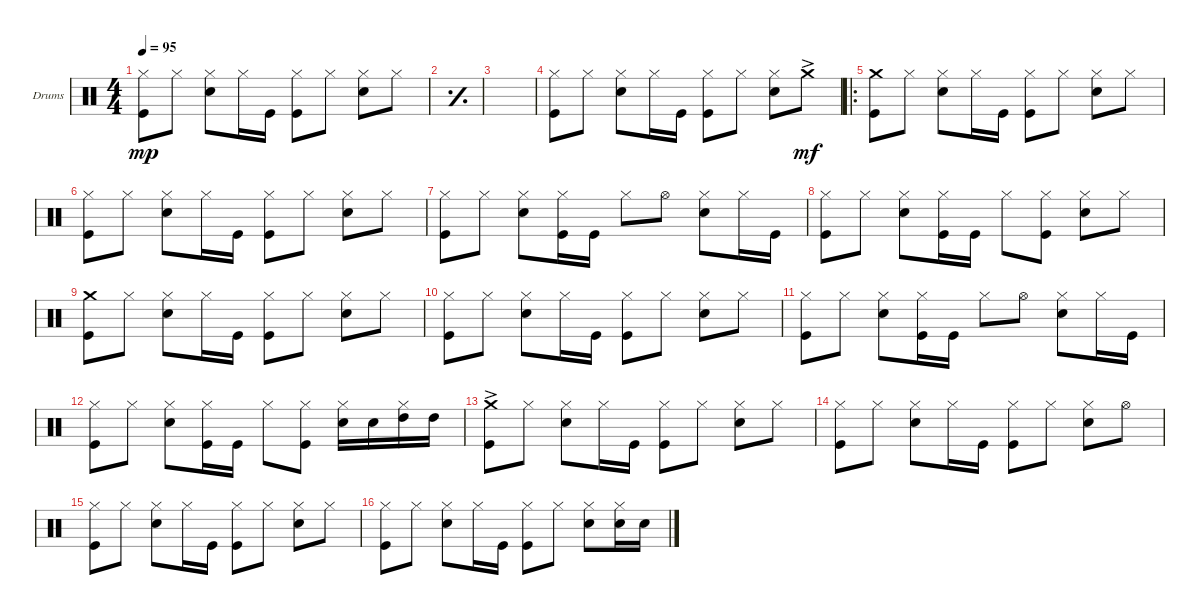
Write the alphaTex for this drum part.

\defaultSystemsLayout 4
\bracketExtendMode groupsimilarinstruments
\firstSystemTrackNameOrientation horizontal
\otherSystemsTrackNameOrientation horizontal
\track ("Batterie " "Drums") {instrument percussion}
\staff {score}
\articulation defaults
\ts (4 4)
\tempo 95
\clef neutral
\ks c
("Kick (hit)" "Hi-Hat (closed)").8{dy mp} "Hi-Hat (closed)".8 ("Hi-Hat (closed)" "Snare (hit) 2").8 "Hi-Hat (closed)".16 "Kick (hit)".16 ("Hi-Hat (closed)" "Kick (hit)").8 "Hi-Hat (closed)".8 ("Hi-Hat (closed)" "Snare (hit) 2").8 "Hi-Hat (closed)".8 |
\simile simple
|
|
\simile none
("Kick (hit)" "Hi-Hat (closed)").8 "Hi-Hat (closed)".8 ("Hi-Hat (closed)" "Snare (hit) 2").8 "Hi-Hat (closed)".16 "Kick (hit)".16 ("Hi-Hat (closed)" "Kick (hit)").8 "Hi-Hat (closed)".8 ("Hi-Hat (closed)" "Snare (hit) 2").8 "Crash medium (hit)"{ac}.8{dy mf} |
\ro
("Kick (hit)" "Crash medium (hit)").8 "Hi-Hat (closed)".8 ("Hi-Hat (closed)" "Snare (hit) 2").8 "Hi-Hat (closed)".16 "Kick (hit)".16 ("Hi-Hat (closed)" "Kick (hit)").8 "Hi-Hat (closed)".8 ("Hi-Hat (closed)" "Snare (hit) 2").8 "Hi-Hat (closed)".8 |
("Kick (hit)" "Hi-Hat (closed)").8 "Hi-Hat (closed)".8 ("Hi-Hat (closed)" "Snare (hit) 2").8 "Hi-Hat (closed)".16 "Kick (hit)".16 ("Hi-Hat (closed)" "Kick (hit)").8 "Hi-Hat (closed)".8 ("Hi-Hat (closed)" "Snare (hit) 2").8 "Hi-Hat (closed)".8 |
("Kick (hit)" "Hi-Hat (closed)").8 "Hi-Hat (closed)".8 ("Hi-Hat (closed)" "Snare (hit) 2").8 ("Hi-Hat (closed)" "Kick (hit)").16 "Kick (hit)".16 "Hi-Hat (closed)".8 "Hi-Hat (open)".8 ("Hi-Hat (closed)" "Snare (hit) 2").8 "Hi-Hat (closed)".16 "Kick (hit)".16 |
("Kick (hit)" "Hi-Hat (closed)").8 "Hi-Hat (closed)".8 ("Hi-Hat (closed)" "Snare (hit) 2").8 ("Hi-Hat (closed)" "Kick (hit)").16 "Kick (hit)".16 "Hi-Hat (closed)".8 ("Hi-Hat (closed)" "Kick (hit)").8 ("Hi-Hat (closed)" "Snare (hit) 2").8 "Hi-Hat (closed)".8 |
("Kick (hit)" "Crash medium (hit)").8 "Hi-Hat (closed)".8 ("Hi-Hat (closed)" "Snare (hit) 2").8 "Hi-Hat (closed)".16 "Kick (hit)".16 ("Hi-Hat (closed)" "Kick (hit)").8 "Hi-Hat (closed)".8 ("Hi-Hat (closed)" "Snare (hit) 2").8 "Hi-Hat (closed)".8 |
("Kick (hit)" "Hi-Hat (closed)").8 "Hi-Hat (closed)".8 ("Hi-Hat (closed)" "Snare (hit) 2").8 "Hi-Hat (closed)".16 "Kick (hit)".16 ("Hi-Hat (closed)" "Kick (hit)").8 "Hi-Hat (closed)".8 ("Hi-Hat (closed)" "Snare (hit) 2").8 "Hi-Hat (closed)".8 |
("Kick (hit)" "Hi-Hat (closed)").8 "Hi-Hat (closed)".8 ("Hi-Hat (closed)" "Snare (hit) 2").8 ("Hi-Hat (closed)" "Kick (hit)").16 "Kick (hit)".16 "Hi-Hat (closed)".8 "Hi-Hat (open)".8 ("Hi-Hat (closed)" "Snare (hit) 2").8 "Hi-Hat (closed)".16 "Kick (hit)".16 |
("Kick (hit)" "Hi-Hat (closed)").8 "Hi-Hat (closed)".8 ("Hi-Hat (closed)" "Snare (hit) 2").8 ("Hi-Hat (closed)" "Kick (hit)").16 "Kick (hit)".16 "Hi-Hat (closed)".8 ("Hi-Hat (closed)" "Kick (hit)").8 ("Hi-Hat (closed)" "Snare (hit) 2").16 "Snare (hit) 2".16 ("High Tom (hit)" "Hi-Hat (closed)").16 "High Tom (hit)".16 |
("Crash medium (hit)"{ac} "Kick (hit)").8 "Hi-Hat (closed)".8 ("Hi-Hat (closed)" "Snare (hit) 2").8 "Hi-Hat (closed)".16 "Kick (hit)".16 ("Hi-Hat (closed)" "Kick (hit)").8 "Hi-Hat (closed)".8 ("Hi-Hat (closed)" "Snare (hit) 2").8 "Hi-Hat (closed)".8 |
("Kick (hit)" "Hi-Hat (closed)").8 "Hi-Hat (closed)".8 ("Hi-Hat (closed)" "Snare (hit) 2").8 "Hi-Hat (closed)".16 "Kick (hit)".16 ("Hi-Hat (closed)" "Kick (hit)").8 "Hi-Hat (closed)".8 ("Hi-Hat (closed)" "Snare (hit) 2").8 "Hi-Hat (open)".8 |
("Kick (hit)" "Hi-Hat (closed)").8 "Hi-Hat (closed)".8 ("Hi-Hat (closed)" "Snare (hit) 2").8 "Hi-Hat (closed)".16 "Kick (hit)".16 ("Hi-Hat (closed)" "Kick (hit)").8 "Hi-Hat (closed)".8 ("Hi-Hat (closed)" "Snare (hit) 2").8 "Hi-Hat (closed)".8 |
("Kick (hit)" "Hi-Hat (closed)").8 "Hi-Hat (closed)".8 ("Hi-Hat (closed)" "Snare (hit) 2").8 "Hi-Hat (closed)".16 "Kick (hit)".16 ("Hi-Hat (closed)" "Kick (hit)").8 "Hi-Hat (closed)".8 ("Hi-Hat (closed)" "Snare (hit) 2").8 ("Hi-Hat (closed)" "Snare (hit) 2").16 "Snare (hit) 2".16
